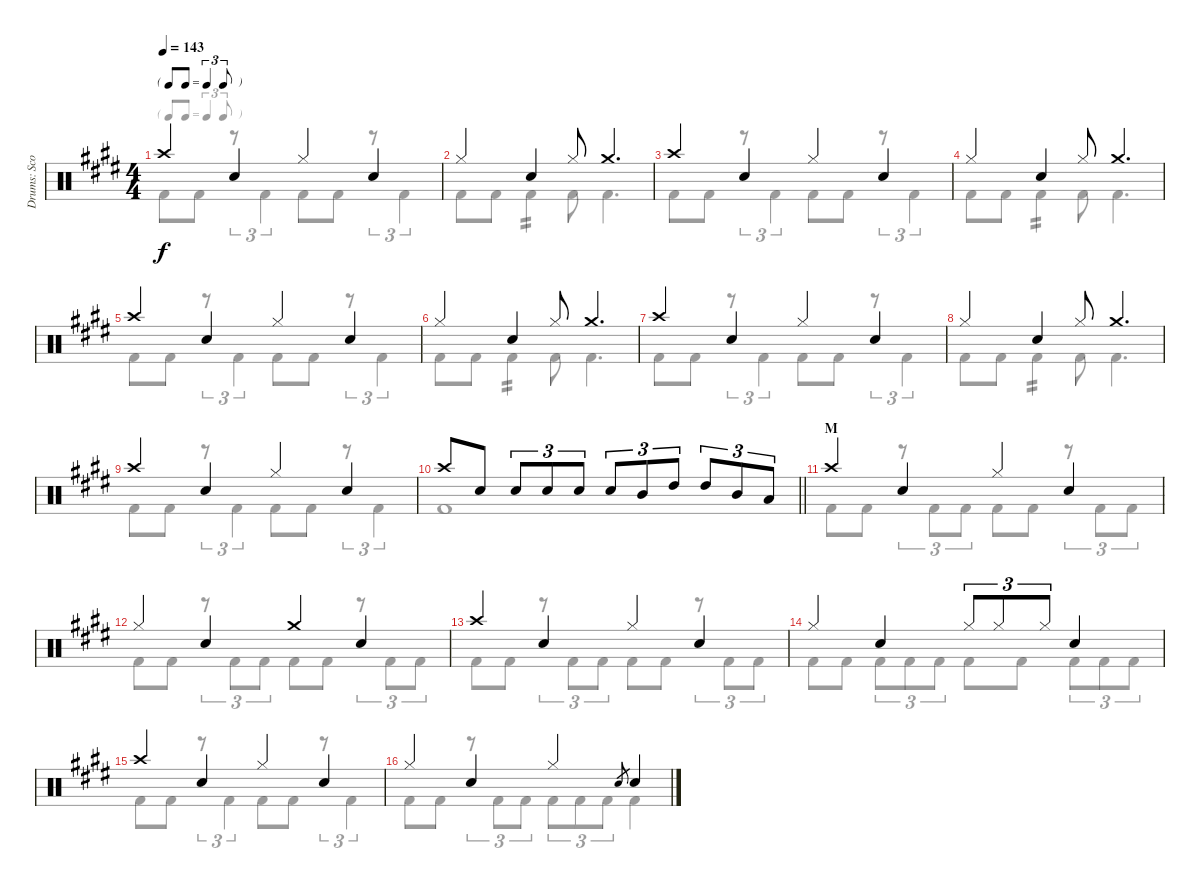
\track ("Drums: Scott" "Drums: Sco") {instrument percussion}
\staff {score}
\articulation defaults
\voice
\ts (4 4)
\tf triplet8th
\tempo 143
\clef neutral
\ks e "Crash high (hit)".4{dy f} "Snare (hit) 2".4 "Hi-Hat (closed)".4 "Snare (hit) 2".4
|
"Hi-Hat (closed)".4 "Snare (hit) 2".4 "Hi-Hat (closed)".8 "Crash medium (hit)".4{d} |
"Crash high (hit)".4 "Snare (hit) 2".4 "Hi-Hat (closed)".4 "Snare (hit) 2".4 |
"Hi-Hat (closed)".4 "Snare (hit) 2".4 "Hi-Hat (closed)".8 "Crash medium (hit)".4{d} |
"Crash high (hit)".4 "Snare (hit) 2".4 "Hi-Hat (closed)".4 "Snare (hit) 2".4 |
"Hi-Hat (closed)".4 "Snare (hit) 2".4 "Hi-Hat (closed)".8 "Crash medium (hit)".4{d} |
"Crash high (hit)".4 "Snare (hit) 2".4 "Hi-Hat (closed)".4 "Snare (hit) 2".4 |
"Hi-Hat (closed)".4 "Snare (hit) 2".4 "Hi-Hat (closed)".8 "Crash medium (hit)".4{d} |
"Crash high (hit)".4 "Snare (hit) 2".4 "Hi-Hat (closed)".4 "Snare (hit) 2".4 |
\barLineRight lightlight "Crash high (hit)".8 "Snare (hit) 2".8 "Snare (hit) 2".8{tu (3 2)} "Snare (hit) 2".8{tu (3 2)} "Snare (hit) 2".8{tu (3 2)} "Snare (hit) 2".8{tu (3 2)} "Mid Tom (hit)".8{tu (3 2)} "High Tom (hit)".8{tu (3 2)} "High Tom (hit)".8{tu (3 2)} "Mid Tom (hit)".8{tu (3 2)} "Low Tom (hit)".8{tu (3 2)}
|
\section ("" "M")
"Crash high (hit)".4 "Snare (hit) 2".4 "Hi-Hat (closed)".4 "Snare (hit) 2".4 |
"Hi-Hat (closed)".4 "Snare (hit) 2".4 "Crash medium (hit)".4 "Snare (hit) 2".4 |
"Crash high (hit)".4 "Snare (hit) 2".4 "Hi-Hat (closed)".4 "Snare (hit) 2".4 |
"Hi-Hat (closed)".4 "Snare (hit) 2".4 "Hi-Hat (closed)".8{tu (3 2)} "Hi-Hat (closed)".8{tu (3 2)} "Hi-Hat (closed)".8{tu (3 2)} "Snare (hit) 2".4 |
"Crash high (hit)".4 "Snare (hit) 2".4 "Hi-Hat (closed)".4 "Snare (hit) 2".4 |
"Hi-Hat (closed)".4 "Snare (hit) 2".4 "Hi-Hat (closed)".4 "Electric Snare (hit)".8{gr} "Snare (hit) 2".4
\voice
\clef neutral
\ottava regular
\simile none
\ks e "Kick (hit) 2".8{dy f} "Kick (hit) 2".8
r.8{tu (3 2)} "Kick (hit) 2".4{tu (3 2)} "Kick (hit) 2".8 "Kick (hit) 2".8 r.8{tu (3 2)} "Kick (hit) 2".4{tu (3 2)} |
"Kick (hit) 2".8 "Kick (hit) 2".8 "Kick (hit) 2".4{tp 2} "Kick (hit) 2".8 "Kick (hit) 2".4{d} |
"Kick (hit) 2".8 "Kick (hit) 2".8 r.8{tu (3 2)} "Kick (hit) 2".4{tu (3 2)} "Kick (hit) 2".8 "Kick (hit) 2".8 r.8{tu (3 2)} "Kick (hit) 2".4{tu (3 2)} |
"Kick (hit) 2".8 "Kick (hit) 2".8 "Kick (hit) 2".4{tp 2} "Kick (hit) 2".8 "Kick (hit) 2".4{d} |
"Kick (hit) 2".8 "Kick (hit) 2".8 r.8{tu (3 2)} "Kick (hit) 2".4{tu (3 2)} "Kick (hit) 2".8 "Kick (hit) 2".8 r.8{tu (3 2)} "Kick (hit) 2".4{tu (3 2)} |
"Kick (hit) 2".8 "Kick (hit) 2".8 "Kick (hit) 2".4{tp 2} "Kick (hit) 2".8 "Kick (hit) 2".4{d} |
"Kick (hit) 2".8 "Kick (hit) 2".8 r.8{tu (3 2)} "Kick (hit) 2".4{tu (3 2)} "Kick (hit) 2".8 "Kick (hit) 2".8 r.8{tu (3 2)} "Kick (hit) 2".4{tu (3 2)} |
"Kick (hit) 2".8 "Kick (hit) 2".8 "Kick (hit) 2".4{tp 2} "Kick (hit) 2".8 "Kick (hit) 2".4{d} |
"Kick (hit) 2".8 "Kick (hit) 2".8 r.8{tu (3 2)} "Kick (hit) 2".4{tu (3 2)} "Kick (hit) 2".8 "Kick (hit) 2".8 r.8{tu (3 2)} "Kick (hit) 2".4{tu (3 2)} |
\barLineRight lightlight "Kick (hit) 2".1
|
"Kick (hit) 2".8 "Kick (hit) 2".8 r.8{tu (3 2)} "Kick (hit) 2".8{tu (3 2)} "Kick (hit) 2".8{tu (3 2)} "Kick (hit) 2".8 "Kick (hit) 2".8 r.8{tu (3 2)} "Kick (hit) 2".8{tu (3 2)} "Kick (hit) 2".8{tu (3 2)} |
"Kick (hit) 2".8 "Kick (hit) 2".8 r.8{tu (3 2)} "Kick (hit) 2".8{tu (3 2)} "Kick (hit) 2".8{tu (3 2)} "Kick (hit) 2".8 "Kick (hit) 2".8 r.8{tu (3 2)} "Kick (hit) 2".8{tu (3 2)} "Kick (hit) 2".8{tu (3 2)} |
"Kick (hit) 2".8 "Kick (hit) 2".8 r.8{tu (3 2)} "Kick (hit) 2".8{tu (3 2)} "Kick (hit) 2".8{tu (3 2)} "Kick (hit) 2".8 "Kick (hit) 2".8 r.8{tu (3 2)} "Kick (hit) 2".8{tu (3 2)} "Kick (hit) 2".8{tu (3 2)} |
"Kick (hit) 2".8 "Kick (hit) 2".8 "Kick (hit) 2".8{tu (3 2)} "Kick (hit) 2".8{tu (3 2)} "Kick (hit) 2".8{tu (3 2)} "Kick (hit) 2".8 "Kick (hit) 2".8 "Kick (hit) 2".8{tu (3 2)} "Kick (hit) 2".8{tu (3 2)} "Kick (hit) 2".8{tu (3 2)} |
"Kick (hit) 2".8 "Kick (hit) 2".8 r.8{tu (3 2)} "Kick (hit) 2".4{tu (3 2)} "Kick (hit) 2".8 "Kick (hit) 2".8 r.8{tu (3 2)} "Kick (hit) 2".4{tu (3 2)} |
"Kick (hit) 2".8 "Kick (hit) 2".8 r.8{tu (3 2)} "Kick (hit) 2".8{tu (3 2)} "Kick (hit) 2".8{tu (3 2)} "Kick (hit) 2".8{tu (3 2)} "Kick (hit) 2".8{tu (3 2)} "Kick (hit) 2".8{tu (3 2)} "Kick (hit) 2".4
